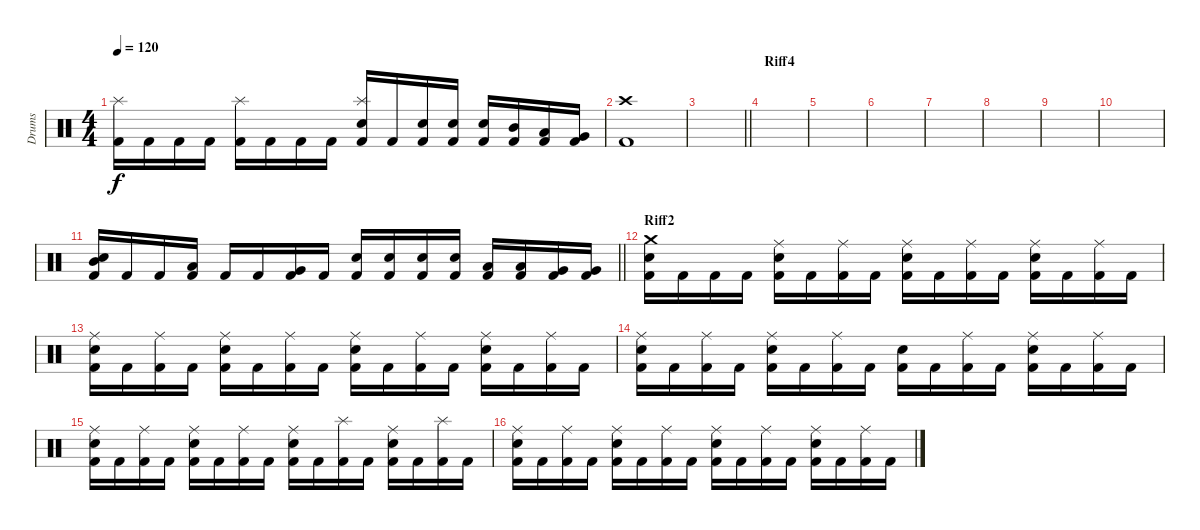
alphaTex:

\track ("Drums" "Drums") {instrument percussion}
\staff {score}
\articulation defaults
\ts (4 4)
\tempo 120
\clef neutral
\ks c
("Kick (hit) 2" "Splash (hit)").16{dy f} "Kick (hit) 2".16 "Kick (hit) 2".16 "Kick (hit) 2".16 ("Kick (hit) 2" "Splash (hit)").16 "Kick (hit) 2".16 "Kick (hit) 2".16 "Kick (hit) 2".16 ("Kick (hit) 2" "Splash (hit)" "Snare (hit) 2").16 "Kick (hit) 2".16 ("Kick (hit) 2" "Snare (hit) 2").16 ("Kick (hit) 2" "Snare (hit) 2").16 ("Kick (hit) 2" "Snare (hit) 2").16 ("Kick (hit) 2" "Mid Tom (hit)").16 ("Kick (hit) 2" "Low Tom (hit)").16 ("Kick (hit) 2" "Very Low Tom (hit)").16 |
("Kick (hit) 2" "Crash high (hit)").1 |
\barLineRight lightlight
|
\section ("" "Riff4")
|
|
|
|
|
|
|
\barLineRight lightlight
("Kick (hit) 2" "Snare (hit) 2" "Mid Tom (hit)").16 "Kick (hit) 2".16 "Kick (hit) 2".16 ("Kick (hit) 2" "Low Tom (hit)").16 "Kick (hit) 2".16 "Kick (hit) 2".16 ("Kick (hit) 2" "Very Low Tom (hit)").16 "Kick (hit) 2".16 ("Kick (hit) 2" "Snare (hit) 2").16 ("Kick (hit) 2" "Snare (hit) 2").16 ("Kick (hit) 2" "Snare (hit) 2").16 ("Kick (hit) 2" "Snare (hit) 2").16 ("Kick (hit) 2" "Low Tom (hit)").16 ("Kick (hit) 2" "Low Tom (hit)").16 ("Kick (hit) 2" "Very Low Tom (hit)").16 ("Kick (hit) 2" "Very Low Tom (hit)").16 |
\section ("" "Riff2")
("Kick (hit) 2" "Crash medium (hit)" "Snare (hit) 2").16 "Kick (hit) 2".16 "Kick (hit) 2".16 "Kick (hit) 2".16 ("Kick (hit) 2" "Ride (middle)" "Snare (hit) 2").16 "Kick (hit) 2".16 ("Kick (hit) 2" "Ride (middle)").16 "Kick (hit) 2".16 ("Kick (hit) 2" "Ride (middle)" "Snare (hit) 2").16 "Kick (hit) 2".16 ("Kick (hit) 2" "Ride (middle)").16 "Kick (hit) 2".16 ("Kick (hit) 2" "Ride (middle)" "Snare (hit) 2").16 "Kick (hit) 2".16 ("Kick (hit) 2" "Ride (middle)").16 "Kick (hit) 2".16 |
("Kick (hit) 2" "Ride (middle)" "Snare (hit) 2").16 "Kick (hit) 2".16 ("Kick (hit) 2" "Ride (middle)").16 "Kick (hit) 2".16 ("Kick (hit) 2" "Ride (middle)" "Snare (hit) 2").16 "Kick (hit) 2".16 ("Kick (hit) 2" "Ride (middle)").16 "Kick (hit) 2".16 ("Kick (hit) 2" "Ride (middle)" "Snare (hit) 2").16 "Kick (hit) 2".16 ("Kick (hit) 2" "Ride (middle)").16 "Kick (hit) 2".16 ("Kick (hit) 2" "Ride (middle)" "Snare (hit) 2").16 "Kick (hit) 2".16 ("Kick (hit) 2" "Ride (middle)").16 "Kick (hit) 2".16 |
("Kick (hit) 2" "Ride (middle)" "Snare (hit) 2").16 "Kick (hit) 2".16 ("Kick (hit) 2" "Ride (middle)").16 "Kick (hit) 2".16 ("Kick (hit) 2" "Ride (middle)" "Snare (hit) 2").16 "Kick (hit) 2".16 ("Kick (hit) 2" "Ride (middle)").16 "Kick (hit) 2".16 ("Kick (hit) 2" "Snare (hit) 2").16 "Kick (hit) 2".16 ("Kick (hit) 2" "Ride (middle)").16 "Kick (hit) 2".16 ("Kick (hit) 2" "Ride (middle)" "Snare (hit) 2").16 "Kick (hit) 2".16 ("Kick (hit) 2" "Ride (middle)").16 "Kick (hit) 2".16 |
("Kick (hit) 2" "Ride (middle)" "Snare (hit) 2").16 "Kick (hit) 2".16 ("Kick (hit) 2" "Ride (middle)").16 "Kick (hit) 2".16 ("Kick (hit) 2" "Ride (middle)" "Snare (hit) 2").16 "Kick (hit) 2".16 ("Kick (hit) 2" "Ride (middle)").16 "Kick (hit) 2".16 ("Kick (hit) 2" "Ride (middle)" "Snare (hit) 2").16 "Kick (hit) 2".16 ("Kick (hit) 2" "Splash (hit)").16 "Kick (hit) 2".16 ("Kick (hit) 2" "Ride (middle)" "Snare (hit) 2").16 "Kick (hit) 2".16 ("Kick (hit) 2" "Splash (hit)").16 "Kick (hit) 2".16 |
("Kick (hit) 2" "Ride (middle)" "Snare (hit) 2").16 "Kick (hit) 2".16 ("Kick (hit) 2" "Ride (middle)").16 "Kick (hit) 2".16 ("Kick (hit) 2" "Ride (middle)" "Snare (hit) 2").16 "Kick (hit) 2".16 ("Kick (hit) 2" "Ride (middle)").16 "Kick (hit) 2".16 ("Kick (hit) 2" "Ride (middle)" "Snare (hit) 2").16 "Kick (hit) 2".16 ("Kick (hit) 2" "Ride (middle)").16 "Kick (hit) 2".16 ("Kick (hit) 2" "Ride (middle)" "Snare (hit) 2").16 "Kick (hit) 2".16 ("Kick (hit) 2" "Ride (middle)").16 "Kick (hit) 2".16
